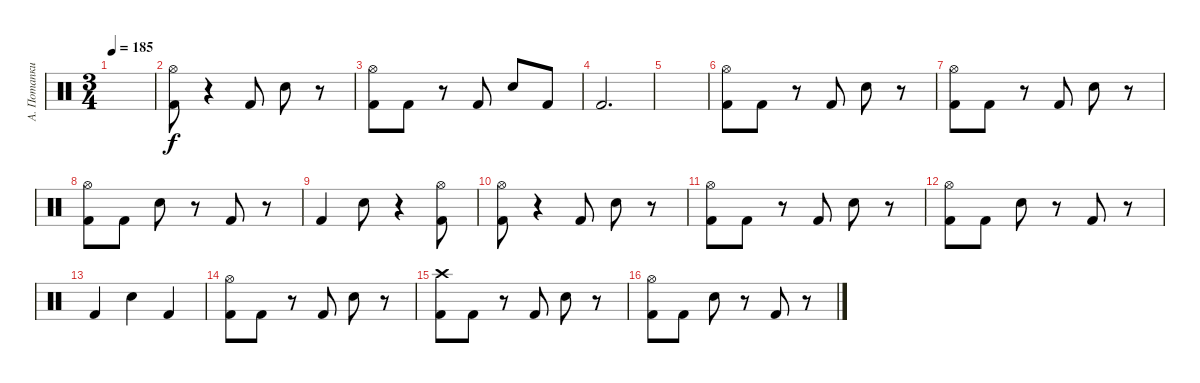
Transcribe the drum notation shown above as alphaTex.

\track ("А. Потапкин" "А. Потапки") {instrument percussion}
\staff {score}
\articulation defaults
\ts (3 4)
\tempo 185
\clef neutral
\ks c
|
("Hi-Hat (open)" "Kick (hit) 2").8 r.4 "Kick (hit) 2".8 "Electric Snare (hit)".8 r.8 |
("Hi-Hat (open)" "Kick (hit) 2").8 "Kick (hit) 2".8 r.8 "Kick (hit) 2".8 "Electric Snare (hit)".8 "Kick (hit) 2".8 |
"Kick (hit) 2".2{d} |
|
("Hi-Hat (open)" "Kick (hit) 2").8 "Kick (hit) 2".8 r.8 "Kick (hit) 2".8 "Electric Snare (hit)".8 r.8 |
("Hi-Hat (open)" "Kick (hit) 2").8 "Kick (hit) 2".8 r.8 "Kick (hit) 2".8 "Electric Snare (hit)".8 r.8 |
("Hi-Hat (open)" "Kick (hit) 2").8 "Kick (hit) 2".8 "Electric Snare (hit)".8 r.8 "Kick (hit) 2".8 r.8 |
"Kick (hit) 2".4 "Electric Snare (hit)".8 r.4 ("Hi-Hat (open)" "Kick (hit) 2").8 |
("Hi-Hat (open)" "Kick (hit) 2").8 r.4 "Kick (hit) 2".8 "Electric Snare (hit)".8 r.8 |
("Hi-Hat (open)" "Kick (hit) 2").8 "Kick (hit) 2".8 r.8 "Kick (hit) 2".8 "Electric Snare (hit)".8 r.8 |
("Hi-Hat (open)" "Kick (hit) 2").8 "Kick (hit) 2".8 "Electric Snare (hit)".8 r.8 "Kick (hit) 2".8 r.8 |
"Kick (hit) 2".4 "Electric Snare (hit)".4 "Kick (hit) 2".4 |
("Hi-Hat (open)" "Kick (hit) 2").8 "Kick (hit) 2".8 r.8 "Kick (hit) 2".8 "Electric Snare (hit)".8 r.8 |
("Crash high (hit)" "Kick (hit) 2").8 "Kick (hit) 2".8 r.8 "Kick (hit) 2".8 "Electric Snare (hit)".8 r.8 |
("Hi-Hat (open)" "Kick (hit) 2").8 "Kick (hit) 2".8 "Electric Snare (hit)".8 r.8 "Kick (hit) 2".8 r.8
